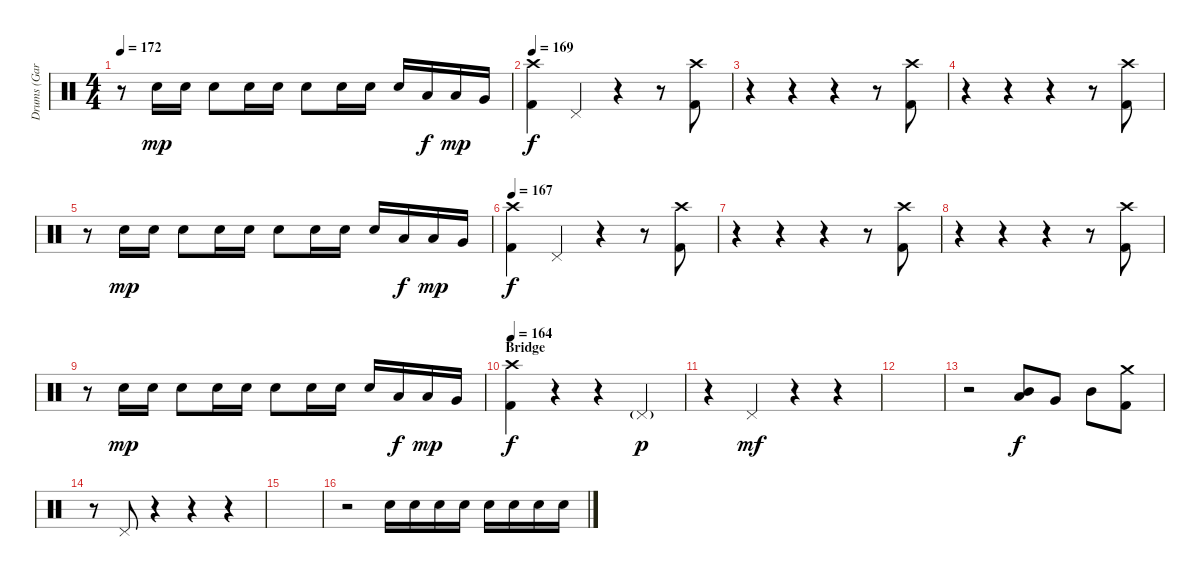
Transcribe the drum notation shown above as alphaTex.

\track ("Drums (Gar Samuelson)" "Drums (Gar") {instrument percussion}
\staff {score}
\articulation defaults
\ts (4 4)
\tempo 172
\clef neutral
\ks c
r.8{dy f} "Snare (hit) 2".16{dy mp} "Snare (hit) 2".16 "Snare (hit) 2".8 "Snare (hit) 2".16 "Snare (hit) 2".16 "Snare (hit) 2".8 "Snare (hit) 2".16 "Snare (hit) 2".16 "Snare (hit) 2".16 "Low Tom (hit)".16{dy f} "Low Tom (hit)".16{dy mp} "Very Low Tom (hit)".16 |
\tempo 169
("Crash high (hit)" "Kick (hit) 2").4{dy f} "Pedal Hi-Hat (hit)".4 r.4 r.8 ("Crash high (hit)" "Kick (hit) 2").8 |
r.4 r.4 r.4 r.8 ("Crash high (hit)" "Kick (hit) 2").8 |
r.4 r.4 r.4 r.8 ("Crash high (hit)" "Kick (hit) 2").8 |
r.8 "Snare (hit) 2".16{dy mp} "Snare (hit) 2".16 "Snare (hit) 2".8 "Snare (hit) 2".16 "Snare (hit) 2".16 "Snare (hit) 2".8 "Snare (hit) 2".16 "Snare (hit) 2".16 "Snare (hit) 2".16 "Low Tom (hit)".16{dy f} "Low Tom (hit)".16{dy mp} "Very Low Tom (hit)".16 |
\tempo 167
("Crash high (hit)" "Kick (hit) 2").4{dy f} "Pedal Hi-Hat (hit)".4 r.4 r.8 ("Crash high (hit)" "Kick (hit) 2").8 |
r.4 r.4 r.4 r.8 ("Crash high (hit)" "Kick (hit) 2").8 |
r.4 r.4 r.4 r.8 ("Crash high (hit)" "Kick (hit) 2").8 |
r.8 "Snare (hit) 2".16{dy mp} "Snare (hit) 2".16 "Snare (hit) 2".8 "Snare (hit) 2".16 "Snare (hit) 2".16 "Snare (hit) 2".8 "Snare (hit) 2".16 "Snare (hit) 2".16 "Snare (hit) 2".16 "Low Tom (hit)".16{dy f} "Low Tom (hit)".16{dy mp} "Very Low Tom (hit)".16 |
\section ("" "Bridge")
\tempo 164
("Crash high (hit)" "Kick (hit) 2").4{dy f} r.4 r.4 "Pedal Hi-Hat (hit)"{g}.4{dy p} |
r.4 "Pedal Hi-Hat (hit)".4{dy mf} r.4 r.4 |
|
r.2 ("Mid Tom (hit)" "Low Tom (hit)").8{dy f} "Very Low Tom (hit)".8 "Mid Tom (hit)".8 ("Crash medium (hit)" "Kick (hit) 2").8 |
r.8 "Pedal Hi-Hat (hit)".8 r.4 r.4 r.4 |
|
r.2 "Snare (hit) 2".16 "Snare (hit) 2".16 "Snare (hit) 2".16 "Snare (hit) 2".16 "Snare (hit) 2".16 "Snare (hit) 2".16 "Snare (hit) 2".16 "Snare (hit) 2".16
